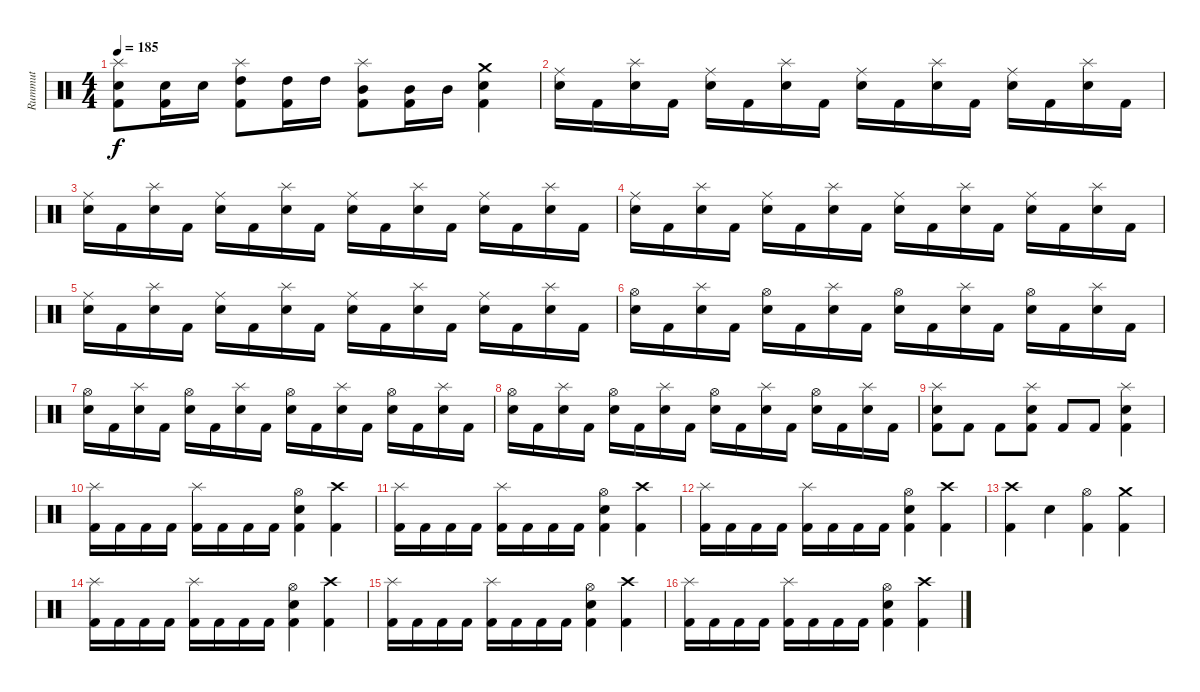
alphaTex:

\track ("Rummut" "Rummut") {instrument percussion}
\staff {score}
\articulation defaults
\ts (4 4)
\tempo 185
\clef neutral
\ks c
("Splash (hit)" "Electric Snare (hit)" "Kick (hit) 2").8{dy f} ("Electric Snare (hit)" "Kick (hit) 2").16 "Electric Snare (hit)".16 ("Splash (hit)" "High Tom (hit)" "Kick (hit) 2").8 ("High Tom (hit)" "Kick (hit) 2").16 "High Tom (hit)".16 ("Splash (hit)" "Mid Tom (hit)" "Kick (hit) 2").8 ("Mid Tom (hit)" "Kick (hit) 2").16 "Mid Tom (hit)".16 ("Crash medium (hit)" "Electric Snare (hit)" "Kick (hit) 2").4 |
("Ride (middle)" "Electric Snare (hit)").16 "Kick (hit) 2".16 ("Splash (hit)" "Electric Snare (hit)").16 "Kick (hit) 2".16 ("Ride (middle)" "Electric Snare (hit)").16 "Kick (hit) 2".16 ("Splash (hit)" "Electric Snare (hit)").16 "Kick (hit) 2".16 ("Ride (middle)" "Electric Snare (hit)").16 "Kick (hit) 2".16 ("Splash (hit)" "Electric Snare (hit)").16 "Kick (hit) 2".16 ("Ride (middle)" "Electric Snare (hit)").16 "Kick (hit) 2".16 ("Splash (hit)" "Electric Snare (hit)").16 "Kick (hit) 2".16 |
("Ride (middle)" "Electric Snare (hit)").16 "Kick (hit) 2".16 ("Splash (hit)" "Electric Snare (hit)").16 "Kick (hit) 2".16 ("Ride (middle)" "Electric Snare (hit)").16 "Kick (hit) 2".16 ("Splash (hit)" "Electric Snare (hit)").16 "Kick (hit) 2".16 ("Ride (middle)" "Electric Snare (hit)").16 "Kick (hit) 2".16 ("Splash (hit)" "Electric Snare (hit)").16 "Kick (hit) 2".16 ("Ride (middle)" "Electric Snare (hit)").16 "Kick (hit) 2".16 ("Splash (hit)" "Electric Snare (hit)").16 "Kick (hit) 2".16 |
("Ride (middle)" "Electric Snare (hit)").16 "Kick (hit) 2".16 ("Splash (hit)" "Electric Snare (hit)").16 "Kick (hit) 2".16 ("Ride (middle)" "Electric Snare (hit)").16 "Kick (hit) 2".16 ("Splash (hit)" "Electric Snare (hit)").16 "Kick (hit) 2".16 ("Ride (middle)" "Electric Snare (hit)").16 "Kick (hit) 2".16 ("Splash (hit)" "Electric Snare (hit)").16 "Kick (hit) 2".16 ("Ride (middle)" "Electric Snare (hit)").16 "Kick (hit) 2".16 ("Splash (hit)" "Electric Snare (hit)").16 "Kick (hit) 2".16 |
("Ride (middle)" "Electric Snare (hit)").16 "Kick (hit) 2".16 ("Splash (hit)" "Electric Snare (hit)").16 "Kick (hit) 2".16 ("Ride (middle)" "Electric Snare (hit)").16 "Kick (hit) 2".16 ("Splash (hit)" "Electric Snare (hit)").16 "Kick (hit) 2".16 ("Ride (middle)" "Electric Snare (hit)").16 "Kick (hit) 2".16 ("Splash (hit)" "Electric Snare (hit)").16 "Kick (hit) 2".16 ("Ride (middle)" "Electric Snare (hit)").16 "Kick (hit) 2".16 ("Splash (hit)" "Electric Snare (hit)").16 "Kick (hit) 2".16 |
("Hi-Hat (open)" "Electric Snare (hit)").16 "Kick (hit) 2".16 ("Splash (hit)" "Electric Snare (hit)").16 "Kick (hit) 2".16 ("Hi-Hat (open)" "Electric Snare (hit)").16 "Kick (hit) 2".16 ("Splash (hit)" "Electric Snare (hit)").16 "Kick (hit) 2".16 ("Hi-Hat (open)" "Electric Snare (hit)").16 "Kick (hit) 2".16 ("Splash (hit)" "Electric Snare (hit)").16 "Kick (hit) 2".16 ("Hi-Hat (open)" "Electric Snare (hit)").16 "Kick (hit) 2".16 ("Splash (hit)" "Electric Snare (hit)").16 "Kick (hit) 2".16 |
("Hi-Hat (open)" "Electric Snare (hit)").16 "Kick (hit) 2".16 ("Splash (hit)" "Electric Snare (hit)").16 "Kick (hit) 2".16 ("Hi-Hat (open)" "Electric Snare (hit)").16 "Kick (hit) 2".16 ("Splash (hit)" "Electric Snare (hit)").16 "Kick (hit) 2".16 ("Hi-Hat (open)" "Electric Snare (hit)").16 "Kick (hit) 2".16 ("Splash (hit)" "Electric Snare (hit)").16 "Kick (hit) 2".16 ("Hi-Hat (open)" "Electric Snare (hit)").16 "Kick (hit) 2".16 ("Splash (hit)" "Electric Snare (hit)").16 "Kick (hit) 2".16 |
("Hi-Hat (open)" "Electric Snare (hit)").16 "Kick (hit) 2".16 ("Splash (hit)" "Electric Snare (hit)").16 "Kick (hit) 2".16 ("Hi-Hat (open)" "Electric Snare (hit)").16 "Kick (hit) 2".16 ("Splash (hit)" "Electric Snare (hit)").16 "Kick (hit) 2".16 ("Hi-Hat (open)" "Electric Snare (hit)").16 "Kick (hit) 2".16 ("Splash (hit)" "Electric Snare (hit)").16 "Kick (hit) 2".16 ("Hi-Hat (open)" "Electric Snare (hit)").16 "Kick (hit) 2".16 ("Splash (hit)" "Electric Snare (hit)").16 "Kick (hit) 2".16 |
("Splash (hit)" "Electric Snare (hit)" "Kick (hit) 2").8 "Kick (hit) 2".8 "Kick (hit) 2".8 ("Splash (hit)" "Electric Snare (hit)" "Kick (hit) 2").8 "Kick (hit) 2".8 "Kick (hit) 2".8 ("Splash (hit)" "Electric Snare (hit)" "Kick (hit) 2").4 |
("Splash (hit)" "Kick (hit) 2").16 "Kick (hit) 2".16 "Kick (hit) 2".16 "Kick (hit) 2".16 ("Splash (hit)" "Kick (hit) 2").16 "Kick (hit) 2".16 "Kick (hit) 2".16 "Kick (hit) 2".16 ("Hi-Hat (open)" "Electric Snare (hit)" "Kick (hit) 2").4 ("Crash high (hit)" "Kick (hit) 2").4 |
("Splash (hit)" "Kick (hit) 2").16 "Kick (hit) 2".16 "Kick (hit) 2".16 "Kick (hit) 2".16 ("Splash (hit)" "Kick (hit) 2").16 "Kick (hit) 2".16 "Kick (hit) 2".16 "Kick (hit) 2".16 ("Hi-Hat (open)" "Electric Snare (hit)" "Kick (hit) 2").4 ("Crash high (hit)" "Kick (hit) 2").4 |
("Splash (hit)" "Kick (hit) 2").16 "Kick (hit) 2".16 "Kick (hit) 2".16 "Kick (hit) 2".16 ("Splash (hit)" "Kick (hit) 2").16 "Kick (hit) 2".16 "Kick (hit) 2".16 "Kick (hit) 2".16 ("Hi-Hat (open)" "Electric Snare (hit)" "Kick (hit) 2").4 ("Crash high (hit)" "Kick (hit) 2").4 |
("Crash high (hit)" "Kick (hit) 2").4 "Electric Snare (hit)".4 ("Hi-Hat (open)" "Kick (hit) 2").4 ("Crash medium (hit)" "Kick (hit) 2").4 |
("Splash (hit)" "Kick (hit) 2").16 "Kick (hit) 2".16 "Kick (hit) 2".16 "Kick (hit) 2".16 ("Splash (hit)" "Kick (hit) 2").16 "Kick (hit) 2".16 "Kick (hit) 2".16 "Kick (hit) 2".16 ("Hi-Hat (open)" "Electric Snare (hit)" "Kick (hit) 2").4 ("Crash high (hit)" "Kick (hit) 2").4 |
("Splash (hit)" "Kick (hit) 2").16 "Kick (hit) 2".16 "Kick (hit) 2".16 "Kick (hit) 2".16 ("Splash (hit)" "Kick (hit) 2").16 "Kick (hit) 2".16 "Kick (hit) 2".16 "Kick (hit) 2".16 ("Hi-Hat (open)" "Electric Snare (hit)" "Kick (hit) 2").4 ("Crash high (hit)" "Kick (hit) 2").4 |
("Splash (hit)" "Kick (hit) 2").16 "Kick (hit) 2".16 "Kick (hit) 2".16 "Kick (hit) 2".16 ("Splash (hit)" "Kick (hit) 2").16 "Kick (hit) 2".16 "Kick (hit) 2".16 "Kick (hit) 2".16 ("Hi-Hat (open)" "Electric Snare (hit)" "Kick (hit) 2").4 ("Crash high (hit)" "Kick (hit) 2").4
